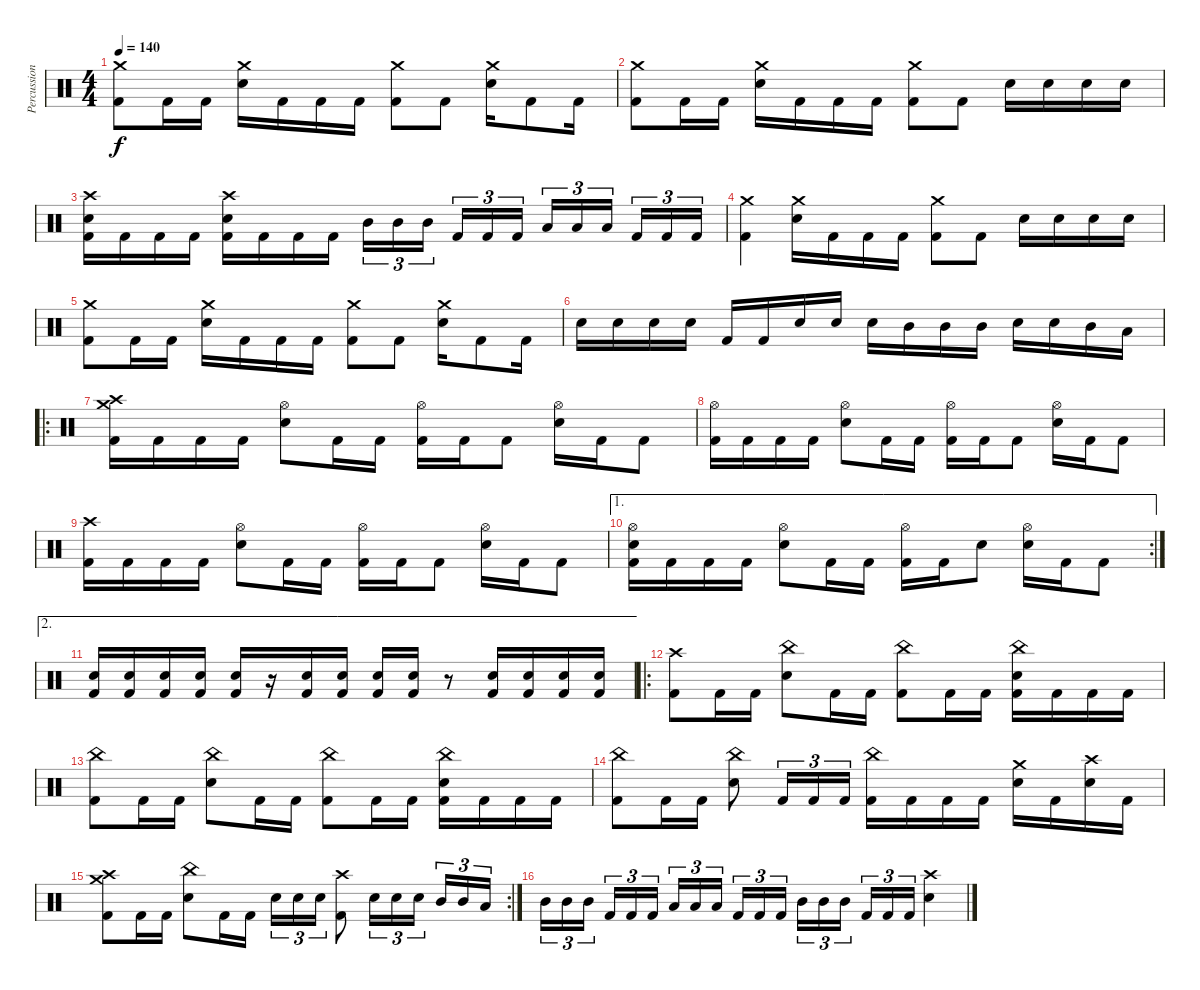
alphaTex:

\track ("Percussions" "Percussion") {instrument percussion}
\staff {score}
\articulation defaults
\ts (4 4)
\tempo 140
\clef neutral
\ks c
("Crash medium (hit)" "Kick (hit) 2").8{dy f} "Kick (hit) 2".16 "Kick (hit) 2".16 ("Crash medium (hit)" "Snare (hit) 2").16 "Kick (hit) 2".16 "Kick (hit) 2".16 "Kick (hit) 2".16 ("Crash medium (hit)" "Kick (hit) 2").8 "Kick (hit) 2".8 ("Crash medium (hit)" "Snare (hit) 2").16 "Kick (hit) 2".8 "Kick (hit) 2".16 |
("Crash medium (hit)" "Kick (hit) 2").8 "Kick (hit) 2".16 "Kick (hit) 2".16 ("Crash medium (hit)" "Snare (hit) 2").16 "Kick (hit) 2".16 "Kick (hit) 2".16 "Kick (hit) 2".16 ("Crash medium (hit)" "Kick (hit) 2").8 "Kick (hit) 2".8 "Snare (hit) 2".16 "Snare (hit) 2".16 "Snare (hit) 2".16 "Snare (hit) 2".16 |
("Crash high (hit)" "Snare (hit) 2" "Kick (hit) 2").16 "Kick (hit) 2".16 "Kick (hit) 2".16 "Kick (hit) 2".16 ("Crash high (hit)" "Snare (hit) 2" "Kick (hit) 2").16 "Kick (hit) 2".16 "Kick (hit) 2".16 "Kick (hit) 2".16 "Mid Tom (hit)".16{tu (3 2)} "Mid Tom (hit)".16{tu (3 2)} "Mid Tom (hit)".16{tu (3 2)} "Kick (hit) 2".16{tu (3 2)} "Kick (hit) 2".16{tu (3 2)} "Kick (hit) 2".16{tu (3 2)} "Low Tom (hit)".16{tu (3 2)} "Low Tom (hit)".16{tu (3 2)} "Low Tom (hit)".16{tu (3 2)} "Kick (hit) 2".16{tu (3 2)} "Kick (hit) 2".16{tu (3 2)} "Kick (hit) 2".16{tu (3 2)} |
("Crash medium (hit)" "Kick (hit) 2").4 ("Crash medium (hit)" "Snare (hit) 2").16 "Kick (hit) 2".16 "Kick (hit) 2".16 "Kick (hit) 2".16 ("Crash medium (hit)" "Kick (hit) 2").8 "Kick (hit) 2".8 "Snare (hit) 2".16 "Snare (hit) 2".16 "Snare (hit) 2".16 "Snare (hit) 2".16 |
("Crash medium (hit)" "Kick (hit) 2").8 "Kick (hit) 2".16 "Kick (hit) 2".16 ("Crash medium (hit)" "Snare (hit) 2").16 "Kick (hit) 2".16 "Kick (hit) 2".16 "Kick (hit) 2".16 ("Crash medium (hit)" "Kick (hit) 2").8 "Kick (hit) 2".8 ("Crash medium (hit)" "Snare (hit) 2").16 "Kick (hit) 2".8 "Kick (hit) 2".16 |
"Snare (hit) 2".16 "Snare (hit) 2".16 "Snare (hit) 2".16 "Snare (hit) 2".16 "Kick (hit) 2".16 "Kick (hit) 2".16 "Snare (hit) 2".16 "Snare (hit) 2".16 "Snare (hit) 2".16 "Mid Tom (hit)".16 "Mid Tom (hit)".16 "Mid Tom (hit)".16 "Snare (hit) 2".16 "Snare (hit) 2".16 "Mid Tom (hit)".16 "Low Tom (hit)".16 |
\ro
("Crash high (hit)" "Crash medium (hit)" "Kick (hit) 2").16 "Kick (hit) 2".16 "Kick (hit) 2".16 "Kick (hit) 2".16 ("Hi-Hat (open)" "Snare (hit) 2").8 "Kick (hit) 2".16 "Kick (hit) 2".16 ("Hi-Hat (open)" "Kick (hit) 2").16 "Kick (hit) 2".16 "Kick (hit) 2".8 ("Hi-Hat (open)" "Snare (hit) 2").16 "Kick (hit) 2".16 "Kick (hit) 2".8 |
("Hi-Hat (open)" "Kick (hit) 2").16 "Kick (hit) 2".16 "Kick (hit) 2".16 "Kick (hit) 2".16 ("Hi-Hat (open)" "Snare (hit) 2").8 "Kick (hit) 2".16 "Kick (hit) 2".16 ("Hi-Hat (open)" "Kick (hit) 2").16 "Kick (hit) 2".16 "Kick (hit) 2".8 ("Hi-Hat (open)" "Snare (hit) 2").16 "Kick (hit) 2".16 "Kick (hit) 2".8 |
("Crash high (hit)" "Kick (hit) 2").16 "Kick (hit) 2".16 "Kick (hit) 2".16 "Kick (hit) 2".16 ("Hi-Hat (open)" "Snare (hit) 2").8 "Kick (hit) 2".16 "Kick (hit) 2".16 ("Hi-Hat (open)" "Kick (hit) 2").16 "Kick (hit) 2".16 "Kick (hit) 2".8 ("Hi-Hat (open)" "Snare (hit) 2").16 "Kick (hit) 2".16 "Kick (hit) 2".8 |
\ae 1
\rc 2
("Hi-Hat (open)" "Snare (hit) 2" "Kick (hit) 2").16 "Kick (hit) 2".16 "Kick (hit) 2".16 "Kick (hit) 2".16 ("Hi-Hat (open)" "Snare (hit) 2").8 "Kick (hit) 2".16 "Kick (hit) 2".16 ("Hi-Hat (open)" "Kick (hit) 2").16 "Kick (hit) 2".16 "Snare (hit) 2".8 ("Hi-Hat (open)" "Snare (hit) 2").16 "Kick (hit) 2".16 "Kick (hit) 2".8 |
\ae 2
("Snare (hit) 2" "Kick (hit) 2").16 ("Snare (hit) 2" "Kick (hit) 2").16 ("Snare (hit) 2" "Kick (hit) 2").16 ("Snare (hit) 2" "Kick (hit) 2").16 ("Snare (hit) 2" "Kick (hit) 2").16 r.16 ("Snare (hit) 2" "Kick (hit) 2").16 ("Snare (hit) 2" "Kick (hit) 2").16 ("Snare (hit) 2" "Kick (hit) 2").16 ("Snare (hit) 2" "Kick (hit) 2").16 r.8 ("Snare (hit) 2" "Kick (hit) 2").16 ("Snare (hit) 2" "Kick (hit) 2").16 ("Snare (hit) 2" "Kick (hit) 2").16 ("Snare (hit) 2" "Kick (hit) 2").16 |
\ro
("Crash high (hit)" "Kick (hit) 2").8 "Kick (hit) 2".16 "Kick (hit) 2".16 ("China (hit)" "Snare (hit) 2").8 "Kick (hit) 2".16 "Kick (hit) 2".16 ("China (hit)" "Kick (hit) 2").8 "Kick (hit) 2".16 "Kick (hit) 2".16 ("China (hit)" "Snare (hit) 2" "Kick (hit) 2").16 "Kick (hit) 2".16 "Kick (hit) 2".16 "Kick (hit) 2".16 |
("China (hit)" "Kick (hit) 2").8 "Kick (hit) 2".16 "Kick (hit) 2".16 ("China (hit)" "Snare (hit) 2").8 "Kick (hit) 2".16 "Kick (hit) 2".16 ("China (hit)" "Kick (hit) 2").8 "Kick (hit) 2".16 "Kick (hit) 2".16 ("China (hit)" "Snare (hit) 2" "Kick (hit) 2").16 "Kick (hit) 2".16 "Kick (hit) 2".16 "Kick (hit) 2".16 |
("China (hit)" "Kick (hit) 2").8 "Kick (hit) 2".16 "Kick (hit) 2".16 ("China (hit)" "Snare (hit) 2").8 "Kick (hit) 2".16{tu (3 2)} "Kick (hit) 2".16{tu (3 2)} "Kick (hit) 2".16{tu (3 2)} ("China (hit)" "Kick (hit) 2").16 "Kick (hit) 2".16 "Kick (hit) 2".16 "Kick (hit) 2".16 ("Crash medium (hit)" "Snare (hit) 2").16 "Kick (hit) 2".16 ("Crash high (hit)" "Snare (hit) 2").16 "Kick (hit) 2".16 |
\rc 2
("Crash medium (hit)" "Crash high (hit)" "Kick (hit) 2").8 "Kick (hit) 2".16 "Kick (hit) 2".16 ("China (hit)" "Snare (hit) 2").8 "Kick (hit) 2".16 "Kick (hit) 2".16 "Snare (hit) 2".16{tu (3 2)} "Snare (hit) 2".16{tu (3 2)} "Snare (hit) 2".16{tu (3 2)} ("Crash high (hit)" "Kick (hit) 2").8 "Snare (hit) 2".16{tu (3 2)} "Snare (hit) 2".16{tu (3 2)} "Snare (hit) 2".16{tu (3 2)} "Mid Tom (hit)".16{tu (3 2)} "Mid Tom (hit)".16{tu (3 2)} "Low Tom (hit)".16{tu (3 2)} |
"Mid Tom (hit)".16{tu (3 2)} "Mid Tom (hit)".16{tu (3 2)} "Mid Tom (hit)".16{tu (3 2)} "Kick (hit) 2".16{tu (3 2)} "Kick (hit) 2".16{tu (3 2)} "Kick (hit) 2".16{tu (3 2)} "Low Tom (hit)".16{tu (3 2)} "Low Tom (hit)".16{tu (3 2)} "Low Tom (hit)".16{tu (3 2)} "Kick (hit) 2".16{tu (3 2)} "Kick (hit) 2".16{tu (3 2)} "Kick (hit) 2".16{tu (3 2)} "Mid Tom (hit)".16{tu (3 2)} "Mid Tom (hit)".16{tu (3 2)} "Mid Tom (hit)".16{tu (3 2)} "Kick (hit) 2".16{tu (3 2)} "Kick (hit) 2".16{tu (3 2)} "Kick (hit) 2".16{tu (3 2)} ("Crash high (hit)" "Snare (hit) 2").4
